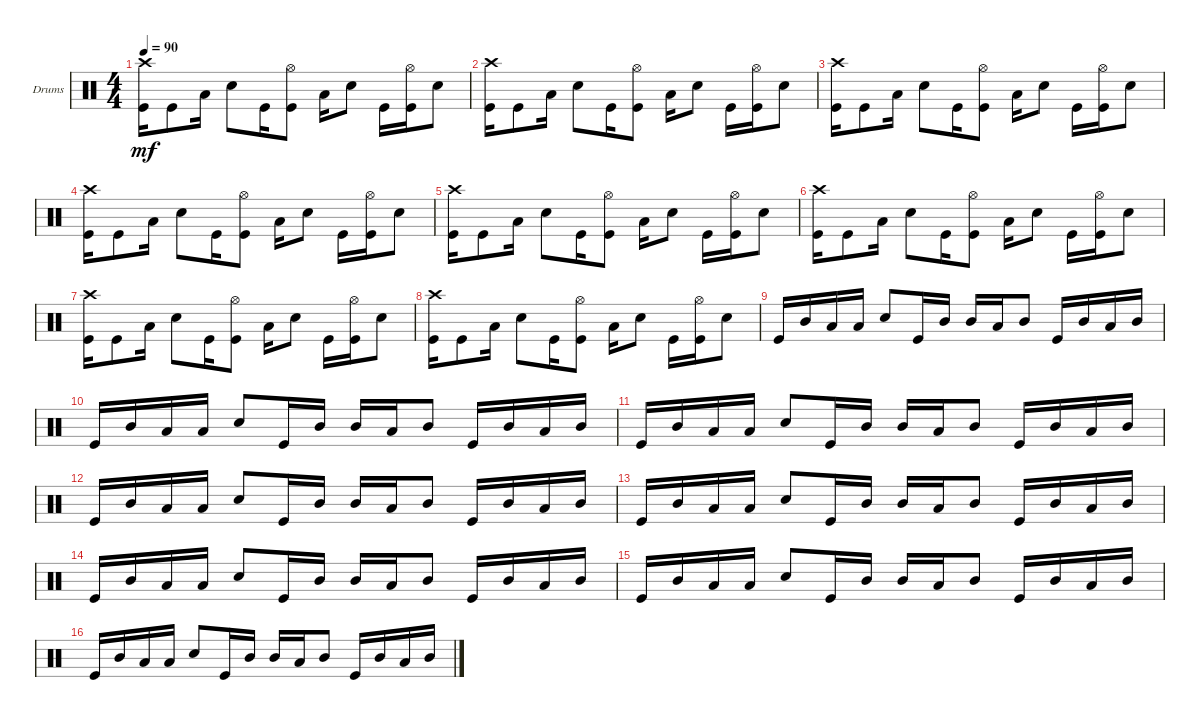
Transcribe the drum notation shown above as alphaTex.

\bracketExtendMode groupsimilarinstruments
\firstSystemTrackNameOrientation horizontal
\otherSystemsTrackNameOrientation horizontal
\track ("Drumkit" "Drums") {instrument percussion}
\staff {score}
\articulation defaults
\ts (4 4)
\tempo 90
\clef neutral
\scale
0.333333
\ks c
("Kick (hit)" "Crash high (hit)").16{dy mf} "Kick (hit)".8 "Low Tom (hit)".16 "Snare (hit) 2".8 "Kick (hit)".16 ("Kick (hit)" "Hi-Hat (open)").8 "Low Tom (hit)".16 "Snare (hit) 2".8 "Kick (hit)".16 ("Kick (hit)" "Hi-Hat (open)").16 "Snare (hit) 2".8 |
\scale
0.333333 ("Kick (hit)" "Crash high (hit)").16 "Kick (hit)".8 "Low Tom (hit)".16 "Snare (hit) 2".8 "Kick (hit)".16 ("Kick (hit)" "Hi-Hat (open)").8 "Low Tom (hit)".16 "Snare (hit) 2".8 "Kick (hit)".16 ("Kick (hit)" "Hi-Hat (open)").16 "Snare (hit) 2".8 |
\scale
0.333333 ("Kick (hit)" "Crash high (hit)").16 "Kick (hit)".8 "Low Tom (hit)".16 "Snare (hit) 2".8 "Kick (hit)".16 ("Kick (hit)" "Hi-Hat (open)").8 "Low Tom (hit)".16 "Snare (hit) 2".8 "Kick (hit)".16 ("Kick (hit)" "Hi-Hat (open)").16 "Snare (hit) 2".8 |
\scale
0.333333 ("Kick (hit)" "Crash high (hit)").16 "Kick (hit)".8 "Low Tom (hit)".16 "Snare (hit) 2".8 "Kick (hit)".16 ("Kick (hit)" "Hi-Hat (open)").8 "Low Tom (hit)".16 "Snare (hit) 2".8 "Kick (hit)".16 ("Kick (hit)" "Hi-Hat (open)").16 "Snare (hit) 2".8 |
\scale
0.333333 ("Kick (hit)" "Crash high (hit)").16 "Kick (hit)".8 "Low Tom (hit)".16 "Snare (hit) 2".8 "Kick (hit)".16 ("Kick (hit)" "Hi-Hat (open)").8 "Low Tom (hit)".16 "Snare (hit) 2".8 "Kick (hit)".16 ("Kick (hit)" "Hi-Hat (open)").16 "Snare (hit) 2".8 |
\scale
0.333333 ("Kick (hit)" "Crash high (hit)").16 "Kick (hit)".8 "Low Tom (hit)".16 "Snare (hit) 2".8 "Kick (hit)".16 ("Kick (hit)" "Hi-Hat (open)").8 "Low Tom (hit)".16 "Snare (hit) 2".8 "Kick (hit)".16 ("Kick (hit)" "Hi-Hat (open)").16 "Snare (hit) 2".8 |
\scale
0.333333 ("Kick (hit)" "Crash high (hit)").16 "Kick (hit)".8 "Low Tom (hit)".16 "Snare (hit) 2".8 "Kick (hit)".16 ("Kick (hit)" "Hi-Hat (open)").8 "Low Tom (hit)".16 "Snare (hit) 2".8 "Kick (hit)".16 ("Kick (hit)" "Hi-Hat (open)").16 "Snare (hit) 2".8 |
\scale
0.333333 ("Kick (hit)" "Crash high (hit)").16 "Kick (hit)".8 "Low Tom (hit)".16 "Snare (hit) 2".8 "Kick (hit)".16 ("Kick (hit)" "Hi-Hat (open)").8 "Low Tom (hit)".16 "Snare (hit) 2".8 "Kick (hit)".16 ("Kick (hit)" "Hi-Hat (open)").16 "Snare (hit) 2".8 |
"Kick (hit)".16 "Mid Tom (hit)".16 "Low Tom (hit)".16 "Low Tom (hit)".16 "Snare (hit) 2".8 "Kick (hit)".16 "Mid Tom (hit)".16 "Mid Tom (hit)".16 "Low Tom (hit)".16 "Mid Tom (hit)".8 "Kick (hit)".16 "Mid Tom (hit)".16 "Low Tom (hit)".16 "Mid Tom (hit)".16 |
"Kick (hit)".16 "Mid Tom (hit)".16 "Low Tom (hit)".16 "Low Tom (hit)".16 "Snare (hit) 2".8 "Kick (hit)".16 "Mid Tom (hit)".16 "Mid Tom (hit)".16 "Low Tom (hit)".16 "Mid Tom (hit)".8 "Kick (hit)".16 "Mid Tom (hit)".16 "Low Tom (hit)".16 "Mid Tom (hit)".16 |
"Kick (hit)".16 "Mid Tom (hit)".16 "Low Tom (hit)".16 "Low Tom (hit)".16 "Snare (hit) 2".8 "Kick (hit)".16 "Mid Tom (hit)".16 "Mid Tom (hit)".16 "Low Tom (hit)".16 "Mid Tom (hit)".8 "Kick (hit)".16 "Mid Tom (hit)".16 "Low Tom (hit)".16 "Mid Tom (hit)".16 |
"Kick (hit)".16 "Mid Tom (hit)".16 "Low Tom (hit)".16 "Low Tom (hit)".16 "Snare (hit) 2".8 "Kick (hit)".16 "Mid Tom (hit)".16 "Mid Tom (hit)".16 "Low Tom (hit)".16 "Mid Tom (hit)".8 "Kick (hit)".16 "Mid Tom (hit)".16 "Low Tom (hit)".16 "Mid Tom (hit)".16 |
"Kick (hit)".16 "Mid Tom (hit)".16 "Low Tom (hit)".16 "Low Tom (hit)".16 "Snare (hit) 2".8 "Kick (hit)".16 "Mid Tom (hit)".16 "Mid Tom (hit)".16 "Low Tom (hit)".16 "Mid Tom (hit)".8 "Kick (hit)".16 "Mid Tom (hit)".16 "Low Tom (hit)".16 "Mid Tom (hit)".16 |
"Kick (hit)".16 "Mid Tom (hit)".16 "Low Tom (hit)".16 "Low Tom (hit)".16 "Snare (hit) 2".8 "Kick (hit)".16 "Mid Tom (hit)".16 "Mid Tom (hit)".16 "Low Tom (hit)".16 "Mid Tom (hit)".8 "Kick (hit)".16 "Mid Tom (hit)".16 "Low Tom (hit)".16 "Mid Tom (hit)".16 |
"Kick (hit)".16 "Mid Tom (hit)".16 "Low Tom (hit)".16 "Low Tom (hit)".16 "Snare (hit) 2".8 "Kick (hit)".16 "Mid Tom (hit)".16 "Mid Tom (hit)".16 "Low Tom (hit)".16 "Mid Tom (hit)".8 "Kick (hit)".16 "Mid Tom (hit)".16 "Low Tom (hit)".16 "Mid Tom (hit)".16 |
"Kick (hit)".16 "Mid Tom (hit)".16 "Low Tom (hit)".16 "Low Tom (hit)".16 "Snare (hit) 2".8 "Kick (hit)".16 "Mid Tom (hit)".16 "Mid Tom (hit)".16 "Low Tom (hit)".16 "Mid Tom (hit)".8 "Kick (hit)".16 "Mid Tom (hit)".16 "Low Tom (hit)".16 "Mid Tom (hit)".16
